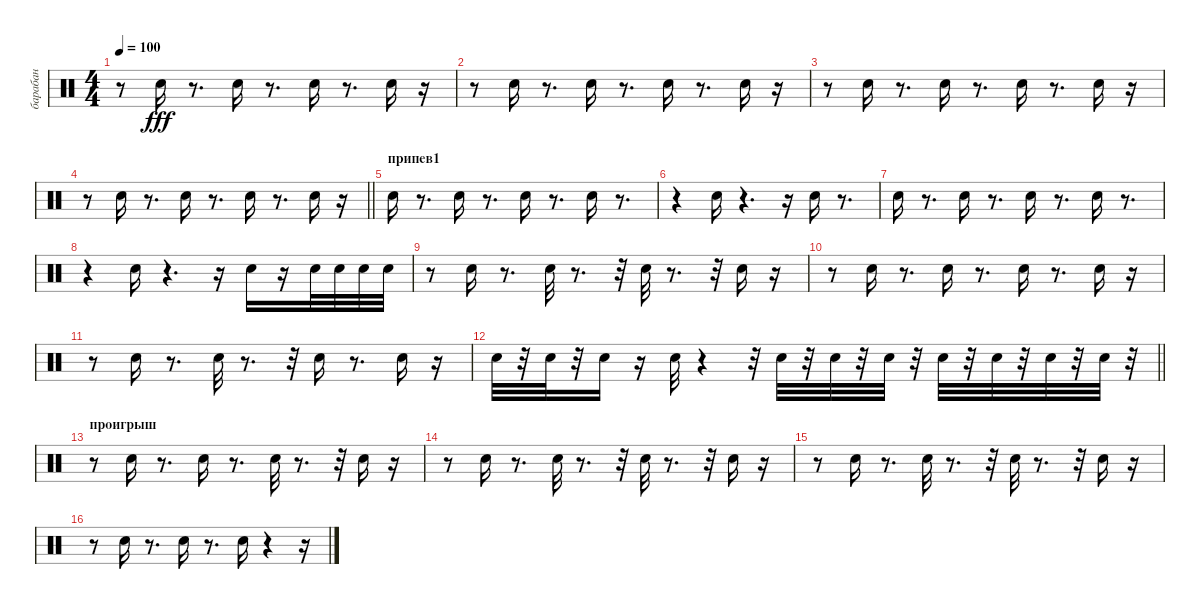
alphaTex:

\track ("барабан" "барабан") {instrument percussion}
\staff {score}
\articulation defaults
\ts (4 4)
\tempo 100
\clef neutral
\ks c
r.8{dy fff} "Snare (hit) 2".16 r.8{d} "Snare (hit) 2".16 r.8{d} "Snare (hit) 2".16 r.8{d} "Snare (hit) 2".16 r.16 |
r.8 "Snare (hit) 2".16 r.8{d} "Snare (hit) 2".16 r.8{d} "Snare (hit) 2".16 r.8{d} "Snare (hit) 2".16 r.16 |
r.8 "Snare (hit) 2".16 r.8{d} "Snare (hit) 2".16 r.8{d} "Snare (hit) 2".16 r.8{d} "Snare (hit) 2".16 r.16 |
\barLineRight lightlight
r.8 "Snare (hit) 2".16 r.8{d} "Snare (hit) 2".16 r.8{d} "Snare (hit) 2".16 r.8{d} "Snare (hit) 2".16 r.16 |
\section ("" "припев1")
"Snare (hit) 2".16 r.8{d} "Snare (hit) 2".16 r.8{d} "Snare (hit) 2".16 r.8{d} "Snare (hit) 2".16 r.8{d} |
r.4 "Snare (hit) 2".16 r.4{d} r.16 "Snare (hit) 2".16 r.8{d} |
"Snare (hit) 2".16 r.8{d} "Snare (hit) 2".16 r.8{d} "Snare (hit) 2".16 r.8{d} "Snare (hit) 2".16 r.8{d} |
r.4 "Snare (hit) 2".16 r.4{d} r.16 "Snare (hit) 2".16 r.16 "Snare (hit) 2".32 "Snare (hit) 2".32 "Snare (hit) 2".32 "Snare (hit) 2".32 |
r.8 "Snare (hit) 2".16 r.8{d} "Snare (hit) 2".32 r.8{d} r.32 "Snare (hit) 2".32 r.8{d} r.32 "Snare (hit) 2".16 r.16 |
r.8 "Snare (hit) 2".16 r.8{d} "Snare (hit) 2".16 r.8{d} "Snare (hit) 2".16 r.8{d} "Snare (hit) 2".16 r.16 |
r.8 "Snare (hit) 2".16 r.8{d} "Snare (hit) 2".32 r.8{d} r.32 "Snare (hit) 2".16 r.8{d} "Snare (hit) 2".16 r.16 |
\barLineRight lightlight "Snare (hit) 2".32
r.32 "Snare (hit) 2".32 r.32 "Snare (hit) 2".16 r.16 "Snare (hit) 2".32 r.4 r.32 "Snare (hit) 2".32 r.32 "Snare (hit) 2".32 r.32 "Snare (hit) 2".32 r.32 "Snare (hit) 2".32 r.32 "Snare (hit) 2".32 r.32 "Snare (hit) 2".32 r.32 "Snare (hit) 2".32 r.32 |
\section ("" "проигрыш")
r.8 "Snare (hit) 2".16 r.8{d} "Snare (hit) 2".16 r.8{d} "Snare (hit) 2".32 r.8{d} r.32 "Snare (hit) 2".16 r.16 |
r.8 "Snare (hit) 2".16 r.8{d} "Snare (hit) 2".32 r.8{d} r.32 "Snare (hit) 2".32 r.8{d} r.32 "Snare (hit) 2".16 r.16 |
r.8 "Snare (hit) 2".16 r.8{d} "Snare (hit) 2".32 r.8{d} r.32 "Snare (hit) 2".32 r.8{d} r.32 "Snare (hit) 2".16 r.16 |
r.8 "Snare (hit) 2".16 r.8{d} "Snare (hit) 2".16 r.8{d} "Snare (hit) 2".16 r.4 r.16
